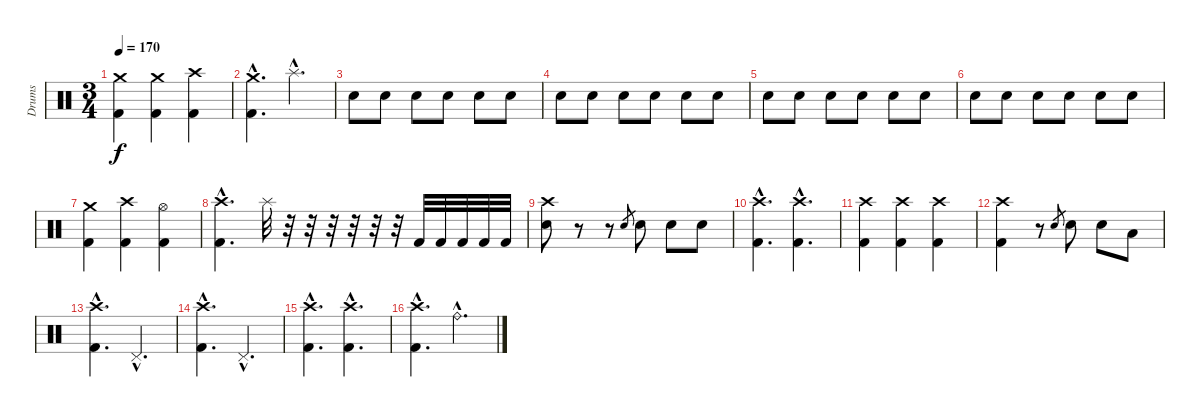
\track ("Drums" "Drums") {instrument percussion}
\staff {score}
\articulation defaults
\ts (3 4)
\tempo 170
\clef neutral
\ks c
("Crash medium (hit)" "Kick (hit) 2").4{dy f} ("Crash medium (hit)" "Kick (hit) 2").4 ("Crash high (hit)" "Kick (hit) 2").4 |
("Crash medium (hit)"{hac} "Kick (hit) 2"{hac}).4{d} "Splash (hit)"{hac}.4{d} |
"Snare (hit) 2".8 "Snare (hit) 2".8 "Snare (hit) 2".8 "Snare (hit) 2".8 "Snare (hit) 2".8 "Snare (hit) 2".8 |
"Snare (hit) 2".8 "Snare (hit) 2".8 "Snare (hit) 2".8 "Snare (hit) 2".8 "Snare (hit) 2".8 "Snare (hit) 2".8 |
"Snare (hit) 2".8 "Snare (hit) 2".8 "Snare (hit) 2".8 "Snare (hit) 2".8 "Snare (hit) 2".8 "Snare (hit) 2".8 |
"Snare (hit) 2".8 "Snare (hit) 2".8 "Snare (hit) 2".8 "Snare (hit) 2".8 "Snare (hit) 2".8 "Snare (hit) 2".8 |
("Crash medium (hit)" "Kick (hit) 2").4 ("Crash high (hit)" "Kick (hit) 2").4 ("Hi-Hat (open)" "Kick (hit) 2").4 |
("Crash high (hit)"{hac} "Kick (hit) 2"{hac}).4{d} "Splash (hit)".32 r.32 r.32 r.32 r.32 r.32 r.32 "Kick (hit) 2".32 "Kick (hit) 2".32 "Kick (hit) 2".32 "Kick (hit) 2".32 "Kick (hit) 2".32 |
("Crash high (hit)" "Electric Snare (hit)").8 r.8 r.8 "Electric Snare (hit)".8{gr} "Electric Snare (hit)".8 "Electric Snare (hit)".8 "Electric Snare (hit)".8 |
("Crash high (hit)"{hac} "Kick (hit) 2"{hac}).4{d} ("Crash high (hit)"{hac} "Kick (hit) 2"{hac}).4{d} |
("Crash high (hit)" "Kick (hit) 2").4 ("Crash high (hit)" "Kick (hit) 2").4 ("Crash high (hit)" "Kick (hit) 2").4 |
("Crash high (hit)" "Kick (hit) 2").4 r.8 "Electric Snare (hit)".8{gr} "Electric Snare (hit)".8 "Electric Snare (hit)".8 "Low Tom (hit)".8 |
("Crash high (hit)"{hac} "Kick (hit) 2"{hac}).4{d} "Pedal Hi-Hat (hit)"{hac}.4{d} |
("Crash high (hit)"{hac} "Kick (hit) 2"{hac}).4{d} "Pedal Hi-Hat (hit)"{hac}.4{d} |
("Crash high (hit)"{hac} "Kick (hit) 2"{hac}).4{d} ("Crash high (hit)"{hac} "Kick (hit) 2"{hac}).4{d} |
("Crash high (hit)"{hac} "Kick (hit) 2"{hac}).4{d} "Ride (bell)"{hac}.4{d}
